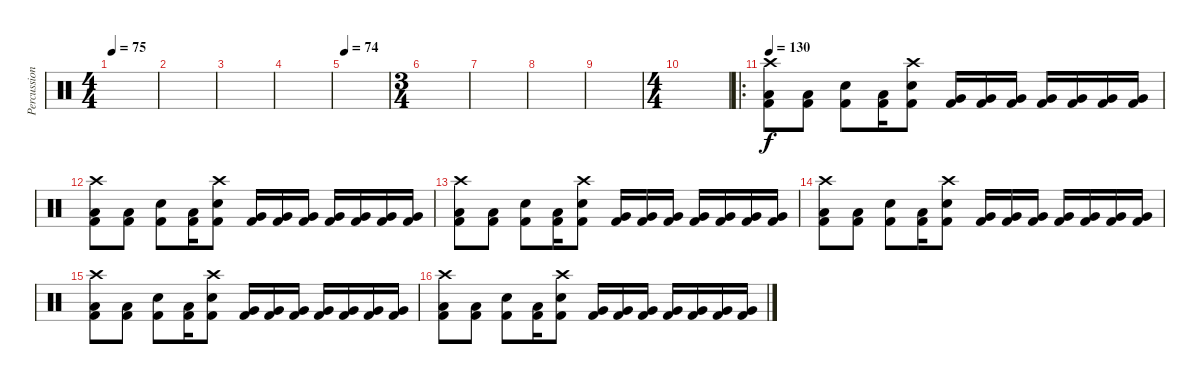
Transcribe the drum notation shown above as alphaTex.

\track ("Percussion" "Percussion") {instrument percussion}
\staff {score}
\articulation defaults
\ts (4 4)
\tempo 75
\clef neutral
\ks c
|
|
|
|
\tempo 74
|
\ts (3 4)
|
|
|
|
\ts (4 4)
|
\ro
\tempo 130
("Crash high (hit)" "Low Floor Tom (hit)" "Kick (hit) 2").8 ("Low Floor Tom (hit)" "Kick (hit) 2").8 ("Electric Snare (hit)" "Kick (hit) 2").8 ("Low Floor Tom (hit)" "Kick (hit) 2").16 ("Crash high (hit)" "Electric Snare (hit)" "Kick (hit) 2").8 ("Very Low Tom (hit)" "Kick (hit) 2").16 ("Very Low Tom (hit)" "Kick (hit) 2").16 ("Very Low Tom (hit)" "Kick (hit) 2").16 ("Very Low Tom (hit)" "Kick (hit) 2").16 ("Very Low Tom (hit)" "Kick (hit) 2").16 ("Very Low Tom (hit)" "Kick (hit) 2").16 ("Very Low Tom (hit)" "Kick (hit) 2").16 |
("Crash high (hit)" "Low Floor Tom (hit)" "Kick (hit) 2").8 ("Low Floor Tom (hit)" "Kick (hit) 2").8 ("Electric Snare (hit)" "Kick (hit) 2").8 ("Low Floor Tom (hit)" "Kick (hit) 2").16 ("Crash high (hit)" "Electric Snare (hit)" "Kick (hit) 2").8 ("Very Low Tom (hit)" "Kick (hit) 2").16 ("Very Low Tom (hit)" "Kick (hit) 2").16 ("Very Low Tom (hit)" "Kick (hit) 2").16 ("Very Low Tom (hit)" "Kick (hit) 2").16 ("Very Low Tom (hit)" "Kick (hit) 2").16 ("Very Low Tom (hit)" "Kick (hit) 2").16 ("Very Low Tom (hit)" "Kick (hit) 2").16 |
("Crash high (hit)" "Low Floor Tom (hit)" "Kick (hit) 2").8 ("Low Floor Tom (hit)" "Kick (hit) 2").8 ("Electric Snare (hit)" "Kick (hit) 2").8 ("Low Floor Tom (hit)" "Kick (hit) 2").16 ("Crash high (hit)" "Electric Snare (hit)" "Kick (hit) 2").8 ("Very Low Tom (hit)" "Kick (hit) 2").16 ("Very Low Tom (hit)" "Kick (hit) 2").16 ("Very Low Tom (hit)" "Kick (hit) 2").16 ("Very Low Tom (hit)" "Kick (hit) 2").16 ("Very Low Tom (hit)" "Kick (hit) 2").16 ("Very Low Tom (hit)" "Kick (hit) 2").16 ("Very Low Tom (hit)" "Kick (hit) 2").16 |
("Crash high (hit)" "Low Floor Tom (hit)" "Kick (hit) 2").8 ("Low Floor Tom (hit)" "Kick (hit) 2").8 ("Electric Snare (hit)" "Kick (hit) 2").8 ("Low Floor Tom (hit)" "Kick (hit) 2").16 ("Crash high (hit)" "Electric Snare (hit)" "Kick (hit) 2").8 ("Very Low Tom (hit)" "Kick (hit) 2").16 ("Very Low Tom (hit)" "Kick (hit) 2").16 ("Very Low Tom (hit)" "Kick (hit) 2").16 ("Very Low Tom (hit)" "Kick (hit) 2").16 ("Very Low Tom (hit)" "Kick (hit) 2").16 ("Very Low Tom (hit)" "Kick (hit) 2").16 ("Very Low Tom (hit)" "Kick (hit) 2").16 |
("Crash high (hit)" "Low Floor Tom (hit)" "Kick (hit) 2").8 ("Low Floor Tom (hit)" "Kick (hit) 2").8 ("Electric Snare (hit)" "Kick (hit) 2").8 ("Low Floor Tom (hit)" "Kick (hit) 2").16 ("Crash high (hit)" "Electric Snare (hit)" "Kick (hit) 2").8 ("Very Low Tom (hit)" "Kick (hit) 2").16 ("Very Low Tom (hit)" "Kick (hit) 2").16 ("Very Low Tom (hit)" "Kick (hit) 2").16 ("Very Low Tom (hit)" "Kick (hit) 2").16 ("Very Low Tom (hit)" "Kick (hit) 2").16 ("Very Low Tom (hit)" "Kick (hit) 2").16 ("Very Low Tom (hit)" "Kick (hit) 2").16 |
("Crash high (hit)" "Low Floor Tom (hit)" "Kick (hit) 2").8 ("Low Floor Tom (hit)" "Kick (hit) 2").8 ("Electric Snare (hit)" "Kick (hit) 2").8 ("Low Floor Tom (hit)" "Kick (hit) 2").16 ("Crash high (hit)" "Electric Snare (hit)" "Kick (hit) 2").8 ("Very Low Tom (hit)" "Kick (hit) 2").16 ("Very Low Tom (hit)" "Kick (hit) 2").16 ("Very Low Tom (hit)" "Kick (hit) 2").16 ("Very Low Tom (hit)" "Kick (hit) 2").16 ("Very Low Tom (hit)" "Kick (hit) 2").16 ("Very Low Tom (hit)" "Kick (hit) 2").16 ("Very Low Tom (hit)" "Kick (hit) 2").16
